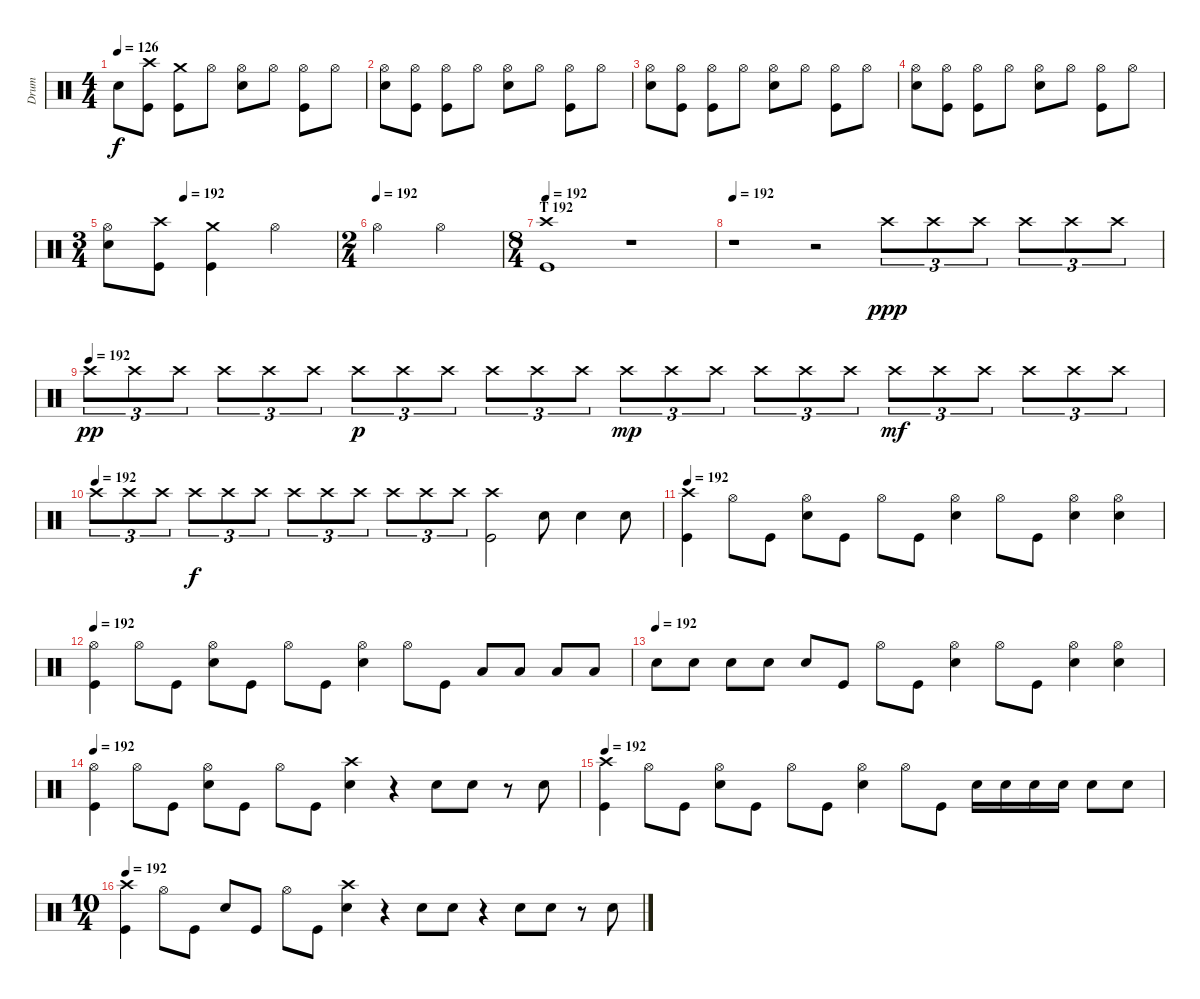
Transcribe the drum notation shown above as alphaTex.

\track ("Drum" "Drum") {instrument percussion}
\staff {score}
\articulation defaults
\ts (4 4)
\tempo 126
\clef neutral
\ks c "Snare (hit) 2".8{dy f}
("Crash high (hit)" "Kick (hit)").8 ("Crash medium (hit)" "Kick (hit)").8 "Hi-Hat (open)".8 ("Hi-Hat (open)" "Snare (hit) 2").8 "Hi-Hat (open)".8 ("Hi-Hat (open)" "Kick (hit)").8 "Hi-Hat (open)".8 |
("Hi-Hat (open)" "Snare (hit) 2").8 ("Hi-Hat (open)" "Kick (hit)").8 ("Hi-Hat (open)" "Kick (hit)").8 "Hi-Hat (open)".8 ("Hi-Hat (open)" "Snare (hit) 2").8 "Hi-Hat (open)".8 ("Hi-Hat (open)" "Kick (hit)").8 "Hi-Hat (open)".8 |
("Hi-Hat (open)" "Snare (hit) 2").8 ("Hi-Hat (open)" "Kick (hit)").8 ("Hi-Hat (open)" "Kick (hit)").8 "Hi-Hat (open)".8 ("Hi-Hat (open)" "Snare (hit) 2").8 "Hi-Hat (open)".8 ("Hi-Hat (open)" "Kick (hit)").8 "Hi-Hat (open)".8 |
("Hi-Hat (open)" "Snare (hit) 2").8 ("Hi-Hat (open)" "Kick (hit)").8 ("Hi-Hat (open)" "Kick (hit)").8 "Hi-Hat (open)".8 ("Hi-Hat (open)" "Snare (hit) 2").8 "Hi-Hat (open)".8 ("Hi-Hat (open)" "Kick (hit)").8 "Hi-Hat (open)".8 |
\ts (3 4)
\tempo (192 0.3333333333333333)
("Hi-Hat (open)" "Snare (hit) 2").8 ("Crash high (hit)" "Kick (hit)").8 ("Crash medium (hit)" "Kick (hit)").4 "Hi-Hat (open)".4 |
\ts (2 4)
\tempo (192)
"Hi-Hat (open)".4 "Hi-Hat (open)".4 |
\ts (8 4)
\section ("" "T 192")
\tempo 192
("Crash high (hit)" "Kick (hit)").1 r.1 |
\tempo 192
r.1 r.2 "Crash high (hit)".8{tu (3 2) dy ppp} "Crash high (hit)".8{tu (3 2)} "Crash high (hit)".8{tu (3 2)} "Crash high (hit)".8{tu (3 2)} "Crash high (hit)".8{tu (3 2)} "Crash high (hit)".8{tu (3 2)} |
\tempo (192)
"Crash high (hit)".8{tu (3 2) dy pp} "Crash high (hit)".8{tu (3 2)} "Crash high (hit)".8{tu (3 2)} "Crash high (hit)".8{tu (3 2)} "Crash high (hit)".8{tu (3 2)} "Crash high (hit)".8{tu (3 2)} "Crash high (hit)".8{tu (3 2) dy p} "Crash high (hit)".8{tu (3 2)} "Crash high (hit)".8{tu (3 2)} "Crash high (hit)".8{tu (3 2)} "Crash high (hit)".8{tu (3 2)} "Crash high (hit)".8{tu (3 2)} "Crash high (hit)".8{tu (3 2) dy mp} "Crash high (hit)".8{tu (3 2)} "Crash high (hit)".8{tu (3 2)} "Crash high (hit)".8{tu (3 2)} "Crash high (hit)".8{tu (3 2)} "Crash high (hit)".8{tu (3 2)} "Crash high (hit)".8{tu (3 2) dy mf} "Crash high (hit)".8{tu (3 2)} "Crash high (hit)".8{tu (3 2)} "Crash high (hit)".8{tu (3 2)} "Crash high (hit)".8{tu (3 2)} "Crash high (hit)".8{tu (3 2)} |
\tempo (192)
"Crash high (hit)".8{tu (3 2)} "Crash high (hit)".8{tu (3 2)} "Crash high (hit)".8{tu (3 2)} "Crash high (hit)".8{tu (3 2) dy f} "Crash high (hit)".8{tu (3 2)} "Crash high (hit)".8{tu (3 2)} "Crash high (hit)".8{tu (3 2)} "Crash high (hit)".8{tu (3 2)} "Crash high (hit)".8{tu (3 2)} "Crash high (hit)".8{tu (3 2)} "Crash high (hit)".8{tu (3 2)} "Crash high (hit)".8{tu (3 2)} ("Crash high (hit)" "Kick (hit)").2 "Snare (hit) 2".8 "Snare (hit) 2".4 "Snare (hit) 2".8 |
\tempo 192
("Crash high (hit)" "Kick (hit)").4 "Hi-Hat (open)".8 "Kick (hit)".8 ("Hi-Hat (open)" "Snare (hit) 2").8 "Kick (hit)".8 "Hi-Hat (open)".8 "Kick (hit)".8 ("Hi-Hat (open)" "Snare (hit) 2").4 "Hi-Hat (open)".8 "Kick (hit)".8 ("Hi-Hat (open)" "Snare (hit) 2").4 ("Hi-Hat (open)" "Snare (hit) 2").4 |
\tempo 192
("Hi-Hat (open)" "Kick (hit)").4 "Hi-Hat (open)".8 "Kick (hit)".8 ("Hi-Hat (open)" "Snare (hit) 2").8 "Kick (hit)".8 "Hi-Hat (open)".8 "Kick (hit)".8 ("Hi-Hat (open)" "Snare (hit) 2").4 "Hi-Hat (open)".8 "Kick (hit)".8 "Low Tom (hit)".8 "Low Tom (hit)".8 "Low Tom (hit)".8 "Low Tom (hit)".8 |
\tempo (192)
"Snare (hit) 2".8 "Snare (hit) 2".8 "Snare (hit) 2".8 "Snare (hit) 2".8 "Snare (hit) 2".8 "Kick (hit)".8 "Hi-Hat (open)".8 "Kick (hit)".8 ("Hi-Hat (open)" "Snare (hit) 2").4 "Hi-Hat (open)".8 "Kick (hit)".8 ("Hi-Hat (open)" "Snare (hit) 2").4 ("Hi-Hat (open)" "Snare (hit) 2").4 |
\tempo 192
("Hi-Hat (open)" "Kick (hit)").4 "Hi-Hat (open)".8 "Kick (hit)".8 ("Hi-Hat (open)" "Snare (hit) 2").8 "Kick (hit)".8 "Hi-Hat (open)".8 "Kick (hit)".8 ("Crash high (hit)" "Snare (hit) 2").4 r.4 "Snare (hit) 2".8 "Snare (hit) 2".8 r.8 "Snare (hit) 2".8 |
\tempo 192
("Crash high (hit)" "Kick (hit)").4 "Hi-Hat (open)".8 "Kick (hit)".8 ("Hi-Hat (open)" "Snare (hit) 2").8 "Kick (hit)".8 "Hi-Hat (open)".8 "Kick (hit)".8 ("Hi-Hat (open)" "Snare (hit) 2").4 "Hi-Hat (open)".8 "Kick (hit)".8 "Snare (hit) 2".16 "Snare (hit) 2".16 "Snare (hit) 2".16 "Snare (hit) 2".16 "Snare (hit) 2".8 "Snare (hit) 2".8 |
\ts (10 4)
\tempo 192
("Crash high (hit)" "Kick (hit)").4 "Hi-Hat (open)".8 "Kick (hit)".8 "Snare (hit) 2".8 "Kick (hit)".8 "Hi-Hat (open)".8 "Kick (hit)".8 ("Crash high (hit)" "Snare (hit) 2").4 r.4 "Snare (hit) 2".8 "Snare (hit) 2".8 r.4 "Snare (hit) 2".8 "Snare (hit) 2".8 r.8 "Snare (hit) 2".8
